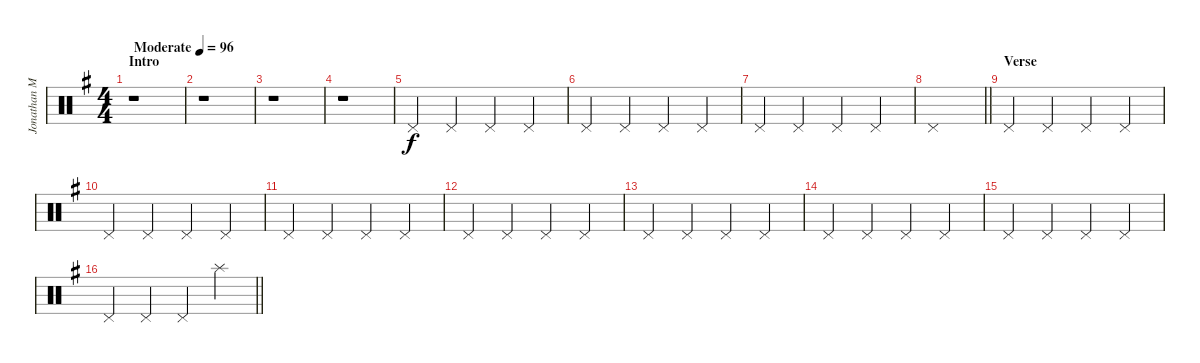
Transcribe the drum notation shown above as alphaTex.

\track ("Jonathan Mover (Drums)" "Jonathan M") {instrument percussion}
\staff {score}
\articulation defaults
\ts (4 4)
\section ("" "Intro")
\tempo (96 "Moderate")
\clef neutral
\ks g
r.1{dy f} |
r.1 |
r.1 |
r.1 |
"Pedal Hi-Hat (hit)".4 "Pedal Hi-Hat (hit)".4 "Pedal Hi-Hat (hit)".4 "Pedal Hi-Hat (hit)".4 |
"Pedal Hi-Hat (hit)".4 "Pedal Hi-Hat (hit)".4 "Pedal Hi-Hat (hit)".4 "Pedal Hi-Hat (hit)".4 |
"Pedal Hi-Hat (hit)".4 "Pedal Hi-Hat (hit)".4 "Pedal Hi-Hat (hit)".4 "Pedal Hi-Hat (hit)".4 |
\barLineRight lightlight "Pedal Hi-Hat (hit)".1
|
\section ("" "Verse")
"Pedal Hi-Hat (hit)".4 "Pedal Hi-Hat (hit)".4 "Pedal Hi-Hat (hit)".4 "Pedal Hi-Hat (hit)".4 |
"Pedal Hi-Hat (hit)".4 "Pedal Hi-Hat (hit)".4 "Pedal Hi-Hat (hit)".4 "Pedal Hi-Hat (hit)".4 |
"Pedal Hi-Hat (hit)".4 "Pedal Hi-Hat (hit)".4 "Pedal Hi-Hat (hit)".4 "Pedal Hi-Hat (hit)".4 |
"Pedal Hi-Hat (hit)".4 "Pedal Hi-Hat (hit)".4 "Pedal Hi-Hat (hit)".4 "Pedal Hi-Hat (hit)".4 |
"Pedal Hi-Hat (hit)".4 "Pedal Hi-Hat (hit)".4 "Pedal Hi-Hat (hit)".4 "Pedal Hi-Hat (hit)".4 |
"Pedal Hi-Hat (hit)".4 "Pedal Hi-Hat (hit)".4 "Pedal Hi-Hat (hit)".4 "Pedal Hi-Hat (hit)".4 |
"Pedal Hi-Hat (hit)".4 "Pedal Hi-Hat (hit)".4 "Pedal Hi-Hat (hit)".4 "Pedal Hi-Hat (hit)".4 |
\barLineRight lightlight "Pedal Hi-Hat (hit)".4 "Pedal Hi-Hat (hit)".4 "Pedal Hi-Hat (hit)".4 "Splash (hit)".4
